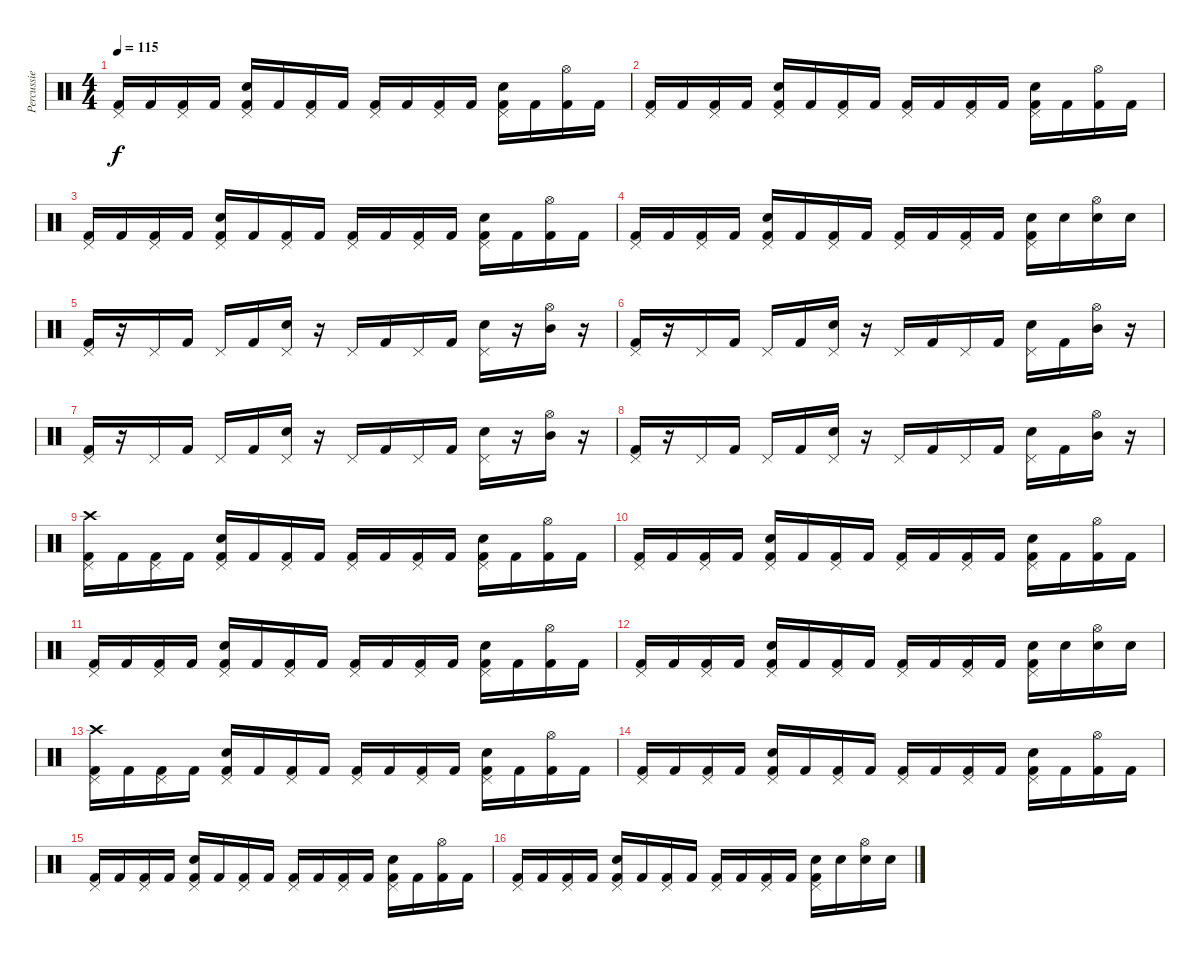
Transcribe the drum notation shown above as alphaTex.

\track ("Percussie" "Percussie") {instrument percussion}
\staff {score}
\articulation defaults
\ts (4 4)
\tempo 115
\clef neutral
\ks c
("Pedal Hi-Hat (hit)" "Kick (hit) 2").16{dy f} "Kick (hit) 2".16 ("Pedal Hi-Hat (hit)" "Kick (hit) 2").16 "Kick (hit) 2".16 ("Pedal Hi-Hat (hit)" "Kick (hit) 2" "Snare (hit) 2").16 "Kick (hit) 2".16 ("Pedal Hi-Hat (hit)" "Kick (hit) 2").16 "Kick (hit) 2".16 ("Pedal Hi-Hat (hit)" "Kick (hit) 2").16 "Kick (hit) 2".16 ("Pedal Hi-Hat (hit)" "Kick (hit) 2").16 "Kick (hit) 2".16 ("Pedal Hi-Hat (hit)" "Kick (hit) 2" "Snare (hit) 2").16 "Kick (hit) 2".16 ("Hi-Hat (open)" "Kick (hit) 2").16 "Kick (hit) 2".16 |
("Pedal Hi-Hat (hit)" "Kick (hit) 2").16 "Kick (hit) 2".16 ("Pedal Hi-Hat (hit)" "Kick (hit) 2").16 "Kick (hit) 2".16 ("Pedal Hi-Hat (hit)" "Kick (hit) 2" "Snare (hit) 2").16 "Kick (hit) 2".16 ("Pedal Hi-Hat (hit)" "Kick (hit) 2").16 "Kick (hit) 2".16 ("Pedal Hi-Hat (hit)" "Kick (hit) 2").16 "Kick (hit) 2".16 ("Pedal Hi-Hat (hit)" "Kick (hit) 2").16 "Kick (hit) 2".16 ("Pedal Hi-Hat (hit)" "Kick (hit) 2" "Snare (hit) 2").16 "Kick (hit) 2".16 ("Hi-Hat (open)" "Kick (hit) 2").16 "Kick (hit) 2".16 |
("Pedal Hi-Hat (hit)" "Kick (hit) 2").16 "Kick (hit) 2".16 ("Pedal Hi-Hat (hit)" "Kick (hit) 2").16 "Kick (hit) 2".16 ("Pedal Hi-Hat (hit)" "Kick (hit) 2" "Snare (hit) 2").16 "Kick (hit) 2".16 ("Pedal Hi-Hat (hit)" "Kick (hit) 2").16 "Kick (hit) 2".16 ("Pedal Hi-Hat (hit)" "Kick (hit) 2").16 "Kick (hit) 2".16 ("Pedal Hi-Hat (hit)" "Kick (hit) 2").16 "Kick (hit) 2".16 ("Pedal Hi-Hat (hit)" "Kick (hit) 2" "Snare (hit) 2").16 "Kick (hit) 2".16 ("Hi-Hat (open)" "Kick (hit) 2").16 "Kick (hit) 2".16 |
("Pedal Hi-Hat (hit)" "Kick (hit) 2").16 "Kick (hit) 2".16 ("Pedal Hi-Hat (hit)" "Kick (hit) 2").16 "Kick (hit) 2".16 ("Pedal Hi-Hat (hit)" "Kick (hit) 2" "Snare (hit) 2").16 "Kick (hit) 2".16 ("Pedal Hi-Hat (hit)" "Kick (hit) 2").16 "Kick (hit) 2".16 ("Pedal Hi-Hat (hit)" "Kick (hit) 2").16 "Kick (hit) 2".16 ("Pedal Hi-Hat (hit)" "Kick (hit) 2").16 "Kick (hit) 2".16 ("Pedal Hi-Hat (hit)" "Kick (hit) 2" "Snare (hit) 2").16 "Snare (hit) 2".16 ("Hi-Hat (open)" "Snare (hit) 2").16 "Snare (hit) 2".16 |
("Pedal Hi-Hat (hit)" "Kick (hit) 2").16 r.16 "Pedal Hi-Hat (hit)".16 "Kick (hit) 2".16 "Pedal Hi-Hat (hit)".16 "Kick (hit) 2".16 ("Pedal Hi-Hat (hit)" "Snare (hit) 2").16 r.16 "Pedal Hi-Hat (hit)".16 "Kick (hit) 2".16 "Pedal Hi-Hat (hit)".16 "Kick (hit) 2".16 ("Pedal Hi-Hat (hit)" "Snare (hit) 2").16 r.16 ("Hi-Hat (open)" "Mid Tom (hit)").16 r.16 |
("Pedal Hi-Hat (hit)" "Kick (hit) 2").16 r.16 "Pedal Hi-Hat (hit)".16 "Kick (hit) 2".16 "Pedal Hi-Hat (hit)".16 "Kick (hit) 2".16 ("Pedal Hi-Hat (hit)" "Snare (hit) 2").16 r.16 "Pedal Hi-Hat (hit)".16 "Kick (hit) 2".16 "Pedal Hi-Hat (hit)".16 "Kick (hit) 2".16 ("Pedal Hi-Hat (hit)" "Snare (hit) 2").16 "Kick (hit) 2".16 ("Hi-Hat (open)" "Mid Tom (hit)").16 r.16 |
("Pedal Hi-Hat (hit)" "Kick (hit) 2").16 r.16 "Pedal Hi-Hat (hit)".16 "Kick (hit) 2".16 "Pedal Hi-Hat (hit)".16 "Kick (hit) 2".16 ("Pedal Hi-Hat (hit)" "Snare (hit) 2").16 r.16 "Pedal Hi-Hat (hit)".16 "Kick (hit) 2".16 "Pedal Hi-Hat (hit)".16 "Kick (hit) 2".16 ("Pedal Hi-Hat (hit)" "Snare (hit) 2").16 r.16 ("Hi-Hat (open)" "Mid Tom (hit)").16 r.16 |
("Pedal Hi-Hat (hit)" "Kick (hit) 2").16 r.16 "Pedal Hi-Hat (hit)".16 "Kick (hit) 2".16 "Pedal Hi-Hat (hit)".16 "Kick (hit) 2".16 ("Pedal Hi-Hat (hit)" "Snare (hit) 2").16 r.16 "Pedal Hi-Hat (hit)".16 "Kick (hit) 2".16 "Pedal Hi-Hat (hit)".16 "Kick (hit) 2".16 ("Pedal Hi-Hat (hit)" "Snare (hit) 2").16 "Kick (hit) 2".16 ("Hi-Hat (open)" "Mid Tom (hit)").16 r.16 |
("Crash high (hit)" "Pedal Hi-Hat (hit)" "Kick (hit) 2").16 "Kick (hit) 2".16 ("Pedal Hi-Hat (hit)" "Kick (hit) 2").16 "Kick (hit) 2".16 ("Pedal Hi-Hat (hit)" "Kick (hit) 2" "Snare (hit) 2").16 "Kick (hit) 2".16 ("Pedal Hi-Hat (hit)" "Kick (hit) 2").16 "Kick (hit) 2".16 ("Pedal Hi-Hat (hit)" "Kick (hit) 2").16 "Kick (hit) 2".16 ("Pedal Hi-Hat (hit)" "Kick (hit) 2").16 "Kick (hit) 2".16 ("Pedal Hi-Hat (hit)" "Kick (hit) 2" "Snare (hit) 2").16 "Kick (hit) 2".16 ("Hi-Hat (open)" "Kick (hit) 2").16 "Kick (hit) 2".16 |
("Pedal Hi-Hat (hit)" "Kick (hit) 2").16 "Kick (hit) 2".16 ("Pedal Hi-Hat (hit)" "Kick (hit) 2").16 "Kick (hit) 2".16 ("Pedal Hi-Hat (hit)" "Kick (hit) 2" "Snare (hit) 2").16 "Kick (hit) 2".16 ("Pedal Hi-Hat (hit)" "Kick (hit) 2").16 "Kick (hit) 2".16 ("Pedal Hi-Hat (hit)" "Kick (hit) 2").16 "Kick (hit) 2".16 ("Pedal Hi-Hat (hit)" "Kick (hit) 2").16 "Kick (hit) 2".16 ("Pedal Hi-Hat (hit)" "Kick (hit) 2" "Snare (hit) 2").16 "Kick (hit) 2".16 ("Hi-Hat (open)" "Kick (hit) 2").16 "Kick (hit) 2".16 |
("Pedal Hi-Hat (hit)" "Kick (hit) 2").16 "Kick (hit) 2".16 ("Pedal Hi-Hat (hit)" "Kick (hit) 2").16 "Kick (hit) 2".16 ("Pedal Hi-Hat (hit)" "Kick (hit) 2" "Snare (hit) 2").16 "Kick (hit) 2".16 ("Pedal Hi-Hat (hit)" "Kick (hit) 2").16 "Kick (hit) 2".16 ("Pedal Hi-Hat (hit)" "Kick (hit) 2").16 "Kick (hit) 2".16 ("Pedal Hi-Hat (hit)" "Kick (hit) 2").16 "Kick (hit) 2".16 ("Pedal Hi-Hat (hit)" "Kick (hit) 2" "Snare (hit) 2").16 "Kick (hit) 2".16 ("Hi-Hat (open)" "Kick (hit) 2").16 "Kick (hit) 2".16 |
("Pedal Hi-Hat (hit)" "Kick (hit) 2").16 "Kick (hit) 2".16 ("Pedal Hi-Hat (hit)" "Kick (hit) 2").16 "Kick (hit) 2".16 ("Pedal Hi-Hat (hit)" "Kick (hit) 2" "Snare (hit) 2").16 "Kick (hit) 2".16 ("Pedal Hi-Hat (hit)" "Kick (hit) 2").16 "Kick (hit) 2".16 ("Pedal Hi-Hat (hit)" "Kick (hit) 2").16 "Kick (hit) 2".16 ("Pedal Hi-Hat (hit)" "Kick (hit) 2").16 "Kick (hit) 2".16 ("Pedal Hi-Hat (hit)" "Kick (hit) 2" "Snare (hit) 2").16 "Snare (hit) 2".16 ("Hi-Hat (open)" "Snare (hit) 2").16 "Snare (hit) 2".16 |
("Crash high (hit)" "Pedal Hi-Hat (hit)" "Kick (hit) 2").16 "Kick (hit) 2".16 ("Pedal Hi-Hat (hit)" "Kick (hit) 2").16 "Kick (hit) 2".16 ("Pedal Hi-Hat (hit)" "Kick (hit) 2" "Snare (hit) 2").16 "Kick (hit) 2".16 ("Pedal Hi-Hat (hit)" "Kick (hit) 2").16 "Kick (hit) 2".16 ("Pedal Hi-Hat (hit)" "Kick (hit) 2").16 "Kick (hit) 2".16 ("Pedal Hi-Hat (hit)" "Kick (hit) 2").16 "Kick (hit) 2".16 ("Pedal Hi-Hat (hit)" "Kick (hit) 2" "Snare (hit) 2").16 "Kick (hit) 2".16 ("Hi-Hat (open)" "Kick (hit) 2").16 "Kick (hit) 2".16 |
("Pedal Hi-Hat (hit)" "Kick (hit) 2").16 "Kick (hit) 2".16 ("Pedal Hi-Hat (hit)" "Kick (hit) 2").16 "Kick (hit) 2".16 ("Pedal Hi-Hat (hit)" "Kick (hit) 2" "Snare (hit) 2").16 "Kick (hit) 2".16 ("Pedal Hi-Hat (hit)" "Kick (hit) 2").16 "Kick (hit) 2".16 ("Pedal Hi-Hat (hit)" "Kick (hit) 2").16 "Kick (hit) 2".16 ("Pedal Hi-Hat (hit)" "Kick (hit) 2").16 "Kick (hit) 2".16 ("Pedal Hi-Hat (hit)" "Kick (hit) 2" "Snare (hit) 2").16 "Kick (hit) 2".16 ("Hi-Hat (open)" "Kick (hit) 2").16 "Kick (hit) 2".16 |
("Pedal Hi-Hat (hit)" "Kick (hit) 2").16 "Kick (hit) 2".16 ("Pedal Hi-Hat (hit)" "Kick (hit) 2").16 "Kick (hit) 2".16 ("Pedal Hi-Hat (hit)" "Kick (hit) 2" "Snare (hit) 2").16 "Kick (hit) 2".16 ("Pedal Hi-Hat (hit)" "Kick (hit) 2").16 "Kick (hit) 2".16 ("Pedal Hi-Hat (hit)" "Kick (hit) 2").16 "Kick (hit) 2".16 ("Pedal Hi-Hat (hit)" "Kick (hit) 2").16 "Kick (hit) 2".16 ("Pedal Hi-Hat (hit)" "Kick (hit) 2" "Snare (hit) 2").16 "Kick (hit) 2".16 ("Hi-Hat (open)" "Kick (hit) 2").16 "Kick (hit) 2".16 |
("Pedal Hi-Hat (hit)" "Kick (hit) 2").16 "Kick (hit) 2".16 ("Pedal Hi-Hat (hit)" "Kick (hit) 2").16 "Kick (hit) 2".16 ("Pedal Hi-Hat (hit)" "Kick (hit) 2" "Snare (hit) 2").16 "Kick (hit) 2".16 ("Pedal Hi-Hat (hit)" "Kick (hit) 2").16 "Kick (hit) 2".16 ("Pedal Hi-Hat (hit)" "Kick (hit) 2").16 "Kick (hit) 2".16 ("Pedal Hi-Hat (hit)" "Kick (hit) 2").16 "Kick (hit) 2".16 ("Pedal Hi-Hat (hit)" "Kick (hit) 2" "Snare (hit) 2").16 "Snare (hit) 2".16 ("Hi-Hat (open)" "Snare (hit) 2").16 "Snare (hit) 2".16
